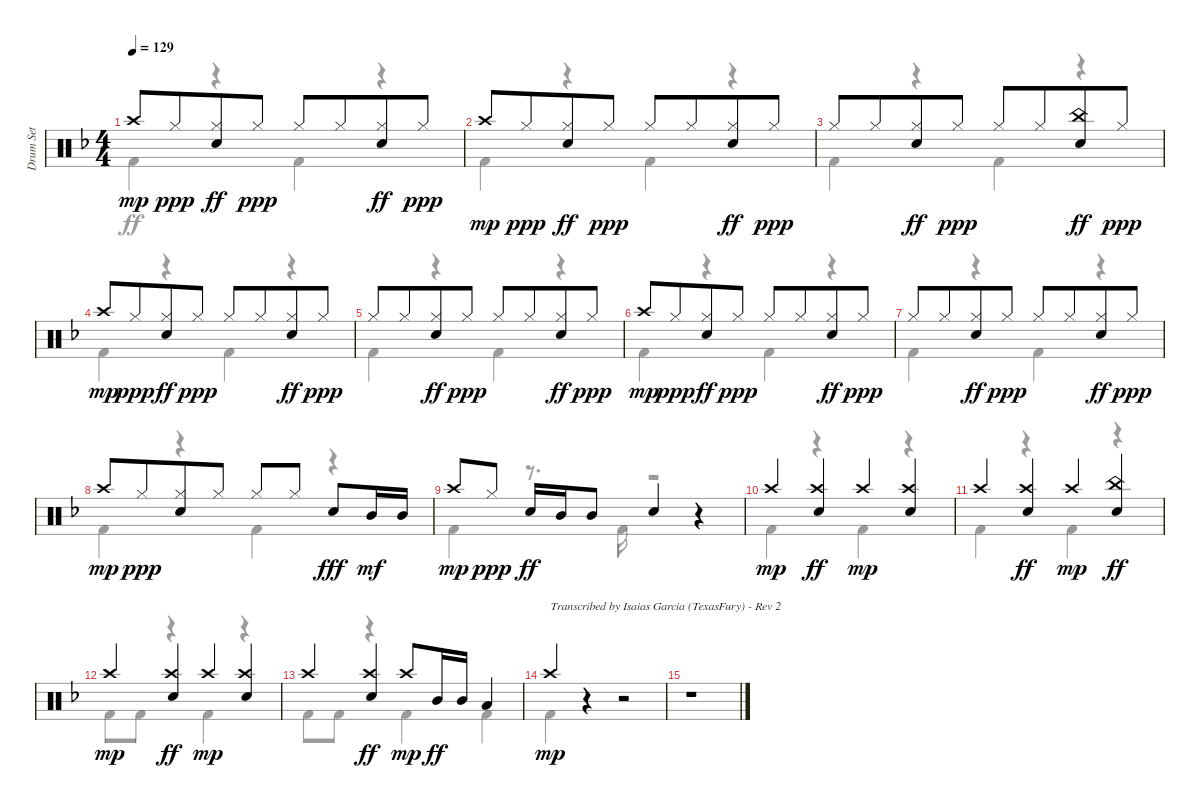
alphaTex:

\track ("Drum Set" "Drum Set") {instrument percussion}
\staff {score}
\articulation defaults
\voice
\ts (4 4)
\tempo 129
\clef neutral
\ks dminor "Crash high (hit)".8{dy mp} "Hi-Hat (closed)".8{dy ppp beam merge}
("Hi-Hat (closed)" "Electric Snare (hit)").8{dy ff} "Hi-Hat (closed)".8{dy ppp} "Hi-Hat (closed)".8 "Hi-Hat (closed)".8{beam merge} ("Hi-Hat (closed)" "Electric Snare (hit)").8{dy ff} "Hi-Hat (closed)".8{dy ppp} |
"Crash high (hit)".8{dy mp} "Hi-Hat (closed)".8{dy ppp beam merge} ("Hi-Hat (closed)" "Electric Snare (hit)").8{dy ff} "Hi-Hat (closed)".8{dy ppp} "Hi-Hat (closed)".8 "Hi-Hat (closed)".8{beam merge} ("Hi-Hat (closed)" "Electric Snare (hit)").8{dy ff} "Hi-Hat (closed)".8{dy ppp} |
"Hi-Hat (closed)".8 "Hi-Hat (closed)".8{beam merge} ("Hi-Hat (closed)" "Electric Snare (hit)").8{dy ff} "Hi-Hat (closed)".8{dy ppp} "Hi-Hat (closed)".8 "Hi-Hat (closed)".8{beam merge} ("China (hit)" "Electric Snare (hit)").8{dy ff} "Hi-Hat (closed)".8{dy ppp} |
"Crash high (hit)".8{dy mp} "Hi-Hat (closed)".8{dy ppp beam merge} ("Hi-Hat (closed)" "Electric Snare (hit)").8{dy ff} "Hi-Hat (closed)".8{dy ppp} "Hi-Hat (closed)".8 "Hi-Hat (closed)".8{beam merge} ("Hi-Hat (closed)" "Electric Snare (hit)").8{dy ff} "Hi-Hat (closed)".8{dy ppp} |
"Hi-Hat (closed)".8 "Hi-Hat (closed)".8{beam merge} ("Hi-Hat (closed)" "Electric Snare (hit)").8{dy ff} "Hi-Hat (closed)".8{dy ppp} "Hi-Hat (closed)".8 "Hi-Hat (closed)".8{beam merge} ("Hi-Hat (closed)" "Electric Snare (hit)").8{dy ff} "Hi-Hat (closed)".8{dy ppp} |
"Crash high (hit)".8{dy mp} "Hi-Hat (closed)".8{dy ppp beam merge} ("Hi-Hat (closed)" "Electric Snare (hit)").8{dy ff} "Hi-Hat (closed)".8{dy ppp} "Hi-Hat (closed)".8 "Hi-Hat (closed)".8{beam merge} ("Hi-Hat (closed)" "Electric Snare (hit)").8{dy ff} "Hi-Hat (closed)".8{dy ppp} |
"Hi-Hat (closed)".8 "Hi-Hat (closed)".8{beam merge} ("Hi-Hat (closed)" "Electric Snare (hit)").8{dy ff} "Hi-Hat (closed)".8{dy ppp} "Hi-Hat (closed)".8 "Hi-Hat (closed)".8{beam merge} ("Hi-Hat (closed)" "Electric Snare (hit)").8{dy ff} "Hi-Hat (closed)".8{dy ppp} |
"Crash high (hit)".8{dy mp} "Hi-Hat (closed)".8{dy ppp beam merge} ("Electric Snare (hit)" "Hi-Hat (closed)").8 "Hi-Hat (closed)".8 "Hi-Hat (closed)".8 "Hi-Hat (closed)".8 "Electric Snare (hit)".8{dy fff} "Mid Tom (hit)".16{dy mf} "Mid Tom (hit)".16 |
"Crash high (hit)".8{dy mp} "Hi-Hat (closed)".8{dy ppp} "Electric Snare (hit)".16{dy ff} "Mid Tom (hit)".16 "Mid Tom (hit)".8 "Electric Snare (hit)".4 r.4 |
"Crash high (hit)".4{dy mp} ("Crash high (hit)" "Electric Snare (hit)").4{dy ff} "Crash high (hit)".4{dy mp} ("Electric Snare (hit)" "Crash high (hit)").4 |
"Crash high (hit)".4 ("Crash high (hit)" "Electric Snare (hit)").4{dy ff} "Crash high (hit)".4{dy mp} ("China (hit)" "Electric Snare (hit)").4{dy ff} |
"Crash high (hit)".4{dy mp} ("Crash high (hit)" "Electric Snare (hit)").4{dy ff} "Crash high (hit)".4{dy mp} ("Electric Snare (hit)" "Crash high (hit)").4 |
"Crash high (hit)".4 ("Crash high (hit)" "Electric Snare (hit)").4{dy ff} "Crash high (hit)".8{dy mp} "Mid Tom (hit)".16{dy ff} "Mid Tom (hit)".16 "Low Tom (hit)".4 |
"Crash high (hit)".4{txt "Transcribed by Isaias Garcia (TexasFury) - Rev 2" dy mp volume 0} r.4 r.2 |
r.1
\voice
\clef neutral
\ottava regular
\simile none
\ks dminor "Kick (hit) 2".4{dy ff}
r.4 "Kick (hit) 2".4 r.4 |
"Kick (hit) 2".4 r.4 "Kick (hit) 2".4 r.4 |
"Kick (hit) 2".4 r.4 "Kick (hit) 2".4 r.4 |
"Kick (hit) 2".4 r.4 "Kick (hit) 2".4 r.4 |
"Kick (hit) 2".4 r.4 "Kick (hit) 2".4 r.4 |
"Kick (hit) 2".4 r.4 "Kick (hit) 2".4 r.4 |
"Kick (hit) 2".4 r.4 "Kick (hit) 2".4 r.4 |
"Kick (hit) 2".4 r.4 "Kick (hit) 2".4 r.4 |
"Kick (hit) 2".4 r.8{d} "Kick (hit) 2".16 r.2 |
"Kick (hit) 2".4 r.4 "Kick (hit) 2".4 r.4 |
"Kick (hit) 2".4 r.4 "Kick (hit) 2".4 r.4 |
"Kick (hit) 2".8 "Kick (hit) 2".8 r.4 "Kick (hit) 2".4 r.4 |
"Kick (hit) 2".8 "Kick (hit) 2".8 r.4 "Kick (hit) 2".4 "Kick (hit) 2".4 |
"Kick (hit) 2".4 r.4 r.2 |
r.1
